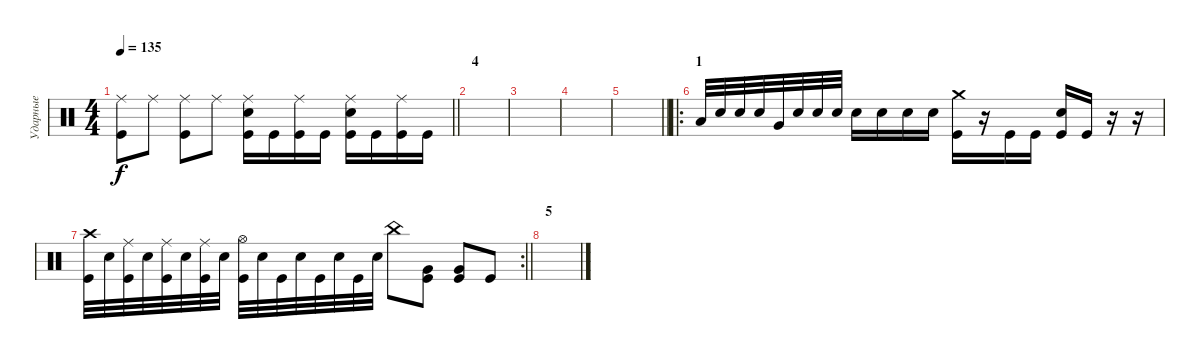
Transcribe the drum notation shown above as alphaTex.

\track ("Ударные" "Ударные") {instrument percussion}
\staff {score}
\articulation defaults
\ts (4 4)
\tempo 135
\clef neutral
\barLineRight lightlight
\ks c
("Ride (middle)" "Kick (hit)").8{dy f} "Ride (middle)".8 ("Ride (middle)" "Kick (hit)").8 "Ride (middle)".8 ("Ride (middle)" "Electric Snare (hit)" "Kick (hit)").16 "Kick (hit)".16 ("Ride (middle)" "Kick (hit)").16 "Kick (hit)".16 ("Ride (middle)" "Electric Snare (hit)" "Kick (hit)").16 "Kick (hit)".16 ("Ride (middle)" "Kick (hit)").16 "Kick (hit)".16 |
\section ("" "4")
|
|
|
\barLineRight lightlight
|
\ro
\section ("" "1")
"Low Tom (hit)".32 "Electric Snare (hit)".32 "Electric Snare (hit)".32 "Electric Snare (hit)".32 "Very Low Tom (hit)".32 "Electric Snare (hit)".32 "Electric Snare (hit)".32 "Electric Snare (hit)".32 "Electric Snare (hit)".16 "Electric Snare (hit)".16 "Electric Snare (hit)".16 "Electric Snare (hit)".16 ("Crash medium (hit)" "Kick (hit)").16 r.16 "Kick (hit)".16 "Kick (hit)".16 ("Electric Snare (hit)" "Kick (hit)").16 "Kick (hit)".16 r.16 r.16 |
\rc 2
\barLineRight lightlight
("Crash high (hit)" "Kick (hit)").32 "Electric Snare (hit)".32 ("Ride (middle)" "Kick (hit)").32 "Electric Snare (hit)".32 ("Ride (middle)" "Kick (hit)").32 "Electric Snare (hit)".32 ("Ride (middle)" "Kick (hit)").32 "Electric Snare (hit)".32 ("Hi-Hat (open)" "Kick (hit)").32 "Electric Snare (hit)".32 "Kick (hit)".32 "Electric Snare (hit)".32 "Kick (hit)".32 "Electric Snare (hit)".32 "Kick (hit)".32 "Electric Snare (hit)".32 "China (hit)".8 ("Very Low Tom (hit)" "Kick (hit)").8 ("Very Low Tom (hit)" "Kick (hit)").8 "Kick (hit)".8 |
\section ("" "5")
